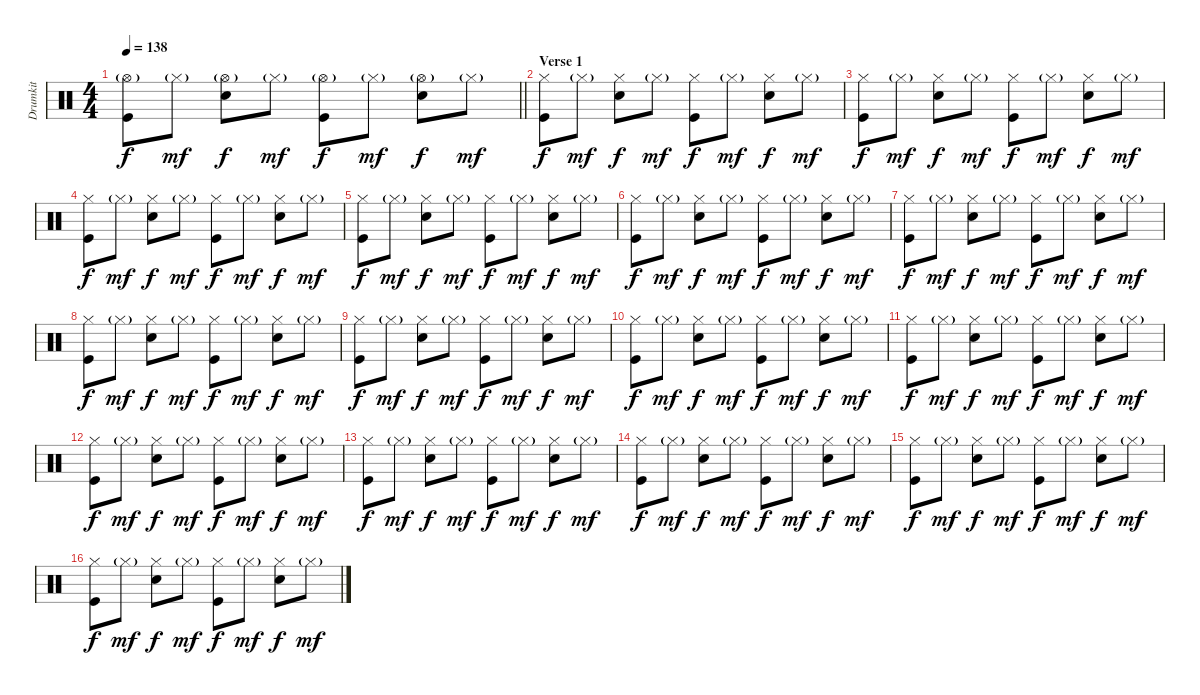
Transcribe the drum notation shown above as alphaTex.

\track ("Drumkit" "Drumkit") {instrument percussion}
\staff {score}
\articulation defaults
\ts (4 4)
\tempo 138
\clef neutral
\barLineRight lightlight
\ks c
("Hi-Hat (open)"{g} "Kick (hit)").8{dy f} "Hi-Hat (closed)"{g}.8{dy mf} ("Hi-Hat (open)"{g} "Snare (hit) 2").8{dy f} "Hi-Hat (closed)"{g}.8{dy mf} ("Hi-Hat (open)"{g} "Kick (hit)").8{dy f} "Hi-Hat (closed)"{g}.8{dy mf} ("Hi-Hat (open)"{g} "Snare (hit) 2").8{dy f} "Hi-Hat (closed)"{g}.8{dy mf} |
\section ("" "Verse 1")
("Hi-Hat (closed)" "Kick (hit)").8{dy f} "Hi-Hat (closed)"{g}.8{dy mf} ("Hi-Hat (closed)" "Snare (hit) 2").8{dy f} "Hi-Hat (closed)"{g}.8{dy mf} ("Hi-Hat (closed)" "Kick (hit)").8{dy f} "Hi-Hat (closed)"{g}.8{dy mf} ("Hi-Hat (closed)" "Snare (hit) 2").8{dy f} "Hi-Hat (closed)"{g}.8{dy mf} |
("Hi-Hat (closed)" "Kick (hit)").8{dy f} "Hi-Hat (closed)"{g}.8{dy mf} ("Hi-Hat (closed)" "Snare (hit) 2").8{dy f} "Hi-Hat (closed)"{g}.8{dy mf} ("Hi-Hat (closed)" "Kick (hit)").8{dy f} "Hi-Hat (closed)"{g}.8{dy mf} ("Hi-Hat (closed)" "Snare (hit) 2").8{dy f} "Hi-Hat (closed)"{g}.8{dy mf} |
("Hi-Hat (closed)" "Kick (hit)").8{dy f} "Hi-Hat (closed)"{g}.8{dy mf} ("Hi-Hat (closed)" "Snare (hit) 2").8{dy f} "Hi-Hat (closed)"{g}.8{dy mf} ("Hi-Hat (closed)" "Kick (hit)").8{dy f} "Hi-Hat (closed)"{g}.8{dy mf} ("Hi-Hat (closed)" "Snare (hit) 2").8{dy f} "Hi-Hat (closed)"{g}.8{dy mf} |
("Hi-Hat (closed)" "Kick (hit)").8{dy f} "Hi-Hat (closed)"{g}.8{dy mf} ("Hi-Hat (closed)" "Snare (hit) 2").8{dy f} "Hi-Hat (closed)"{g}.8{dy mf} ("Hi-Hat (closed)" "Kick (hit)").8{dy f} "Hi-Hat (closed)"{g}.8{dy mf} ("Hi-Hat (closed)" "Snare (hit) 2").8{dy f} "Hi-Hat (closed)"{g}.8{dy mf} |
("Hi-Hat (closed)" "Kick (hit)").8{dy f} "Hi-Hat (closed)"{g}.8{dy mf} ("Hi-Hat (closed)" "Snare (hit) 2").8{dy f} "Hi-Hat (closed)"{g}.8{dy mf} ("Hi-Hat (closed)" "Kick (hit)").8{dy f} "Hi-Hat (closed)"{g}.8{dy mf} ("Hi-Hat (closed)" "Snare (hit) 2").8{dy f} "Hi-Hat (closed)"{g}.8{dy mf} |
("Hi-Hat (closed)" "Kick (hit)").8{dy f} "Hi-Hat (closed)"{g}.8{dy mf} ("Hi-Hat (closed)" "Snare (hit) 2").8{dy f} "Hi-Hat (closed)"{g}.8{dy mf} ("Hi-Hat (closed)" "Kick (hit)").8{dy f} "Hi-Hat (closed)"{g}.8{dy mf} ("Hi-Hat (closed)" "Snare (hit) 2").8{dy f} "Hi-Hat (closed)"{g}.8{dy mf} |
("Hi-Hat (closed)" "Kick (hit)").8{dy f} "Hi-Hat (closed)"{g}.8{dy mf} ("Hi-Hat (closed)" "Snare (hit) 2").8{dy f} "Hi-Hat (closed)"{g}.8{dy mf} ("Hi-Hat (closed)" "Kick (hit)").8{dy f} "Hi-Hat (closed)"{g}.8{dy mf} ("Hi-Hat (closed)" "Snare (hit) 2").8{dy f} "Hi-Hat (closed)"{g}.8{dy mf} |
("Hi-Hat (closed)" "Kick (hit)").8{dy f} "Hi-Hat (closed)"{g}.8{dy mf} ("Hi-Hat (closed)" "Snare (hit) 2").8{dy f} "Hi-Hat (closed)"{g}.8{dy mf} ("Hi-Hat (closed)" "Kick (hit)").8{dy f} "Hi-Hat (closed)"{g}.8{dy mf} ("Hi-Hat (closed)" "Snare (hit) 2").8{dy f} "Hi-Hat (closed)"{g}.8{dy mf} |
("Hi-Hat (closed)" "Kick (hit)").8{dy f} "Hi-Hat (closed)"{g}.8{dy mf} ("Hi-Hat (closed)" "Snare (hit) 2").8{dy f} "Hi-Hat (closed)"{g}.8{dy mf} ("Hi-Hat (closed)" "Kick (hit)").8{dy f} "Hi-Hat (closed)"{g}.8{dy mf} ("Hi-Hat (closed)" "Snare (hit) 2").8{dy f} "Hi-Hat (closed)"{g}.8{dy mf} |
("Hi-Hat (closed)" "Kick (hit)").8{dy f} "Hi-Hat (closed)"{g}.8{dy mf} ("Hi-Hat (closed)" "Snare (hit) 2").8{dy f} "Hi-Hat (closed)"{g}.8{dy mf} ("Hi-Hat (closed)" "Kick (hit)").8{dy f} "Hi-Hat (closed)"{g}.8{dy mf} ("Hi-Hat (closed)" "Snare (hit) 2").8{dy f} "Hi-Hat (closed)"{g}.8{dy mf} |
("Hi-Hat (closed)" "Kick (hit)").8{dy f} "Hi-Hat (closed)"{g}.8{dy mf} ("Hi-Hat (closed)" "Snare (hit) 2").8{dy f} "Hi-Hat (closed)"{g}.8{dy mf} ("Hi-Hat (closed)" "Kick (hit)").8{dy f} "Hi-Hat (closed)"{g}.8{dy mf} ("Hi-Hat (closed)" "Snare (hit) 2").8{dy f} "Hi-Hat (closed)"{g}.8{dy mf} |
("Hi-Hat (closed)" "Kick (hit)").8{dy f} "Hi-Hat (closed)"{g}.8{dy mf} ("Hi-Hat (closed)" "Snare (hit) 2").8{dy f} "Hi-Hat (closed)"{g}.8{dy mf} ("Hi-Hat (closed)" "Kick (hit)").8{dy f} "Hi-Hat (closed)"{g}.8{dy mf} ("Hi-Hat (closed)" "Snare (hit) 2").8{dy f} "Hi-Hat (closed)"{g}.8{dy mf} |
("Hi-Hat (closed)" "Kick (hit)").8{dy f} "Hi-Hat (closed)"{g}.8{dy mf} ("Hi-Hat (closed)" "Snare (hit) 2").8{dy f} "Hi-Hat (closed)"{g}.8{dy mf} ("Hi-Hat (closed)" "Kick (hit)").8{dy f} "Hi-Hat (closed)"{g}.8{dy mf} ("Hi-Hat (closed)" "Snare (hit) 2").8{dy f} "Hi-Hat (closed)"{g}.8{dy mf} |
("Hi-Hat (closed)" "Kick (hit)").8{dy f} "Hi-Hat (closed)"{g}.8{dy mf} ("Hi-Hat (closed)" "Snare (hit) 2").8{dy f} "Hi-Hat (closed)"{g}.8{dy mf} ("Hi-Hat (closed)" "Kick (hit)").8{dy f} "Hi-Hat (closed)"{g}.8{dy mf} ("Hi-Hat (closed)" "Snare (hit) 2").8{dy f} "Hi-Hat (closed)"{g}.8{dy mf} |
("Hi-Hat (closed)" "Kick (hit)").8{dy f} "Hi-Hat (closed)"{g}.8{dy mf} ("Hi-Hat (closed)" "Snare (hit) 2").8{dy f} "Hi-Hat (closed)"{g}.8{dy mf} ("Hi-Hat (closed)" "Kick (hit)").8{dy f} "Hi-Hat (closed)"{g}.8{dy mf} ("Hi-Hat (closed)" "Snare (hit) 2").8{dy f} "Hi-Hat (closed)"{g}.8{dy mf}
